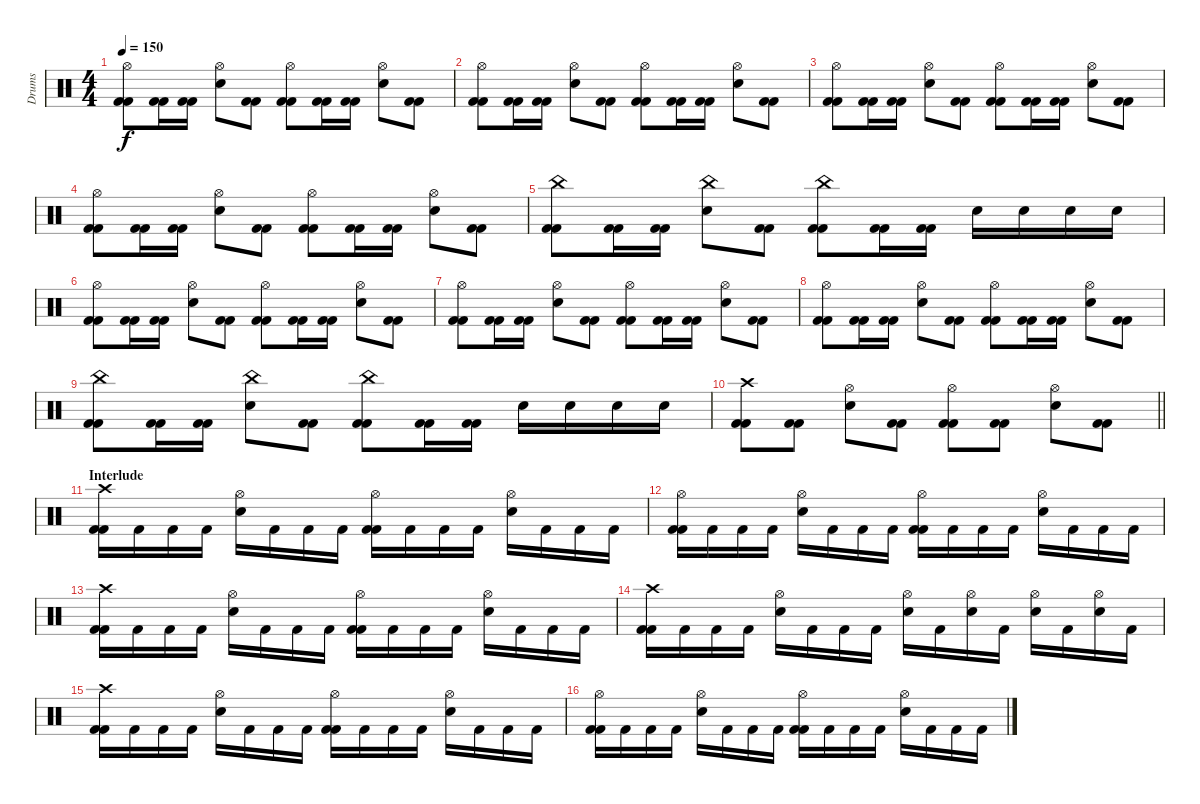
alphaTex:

\track ("Drums" "Drums") {instrument percussion}
\staff {score}
\articulation defaults
\ts (4 4)
\tempo 150
\clef neutral
\ks c
("Hi-Hat (open)" "Kick (hit) 2" "Kick (hit) 2").8{dy f} ("Kick (hit) 2" "Kick (hit) 2").16 ("Kick (hit) 2" "Kick (hit) 2").16 ("Electric Snare (hit)" "Hi-Hat (open)").8 ("Kick (hit) 2" "Kick (hit) 2").8 ("Hi-Hat (open)" "Kick (hit) 2" "Kick (hit) 2").8 ("Kick (hit) 2" "Kick (hit) 2").16 ("Kick (hit) 2" "Kick (hit) 2").16 ("Electric Snare (hit)" "Hi-Hat (open)").8 ("Kick (hit) 2" "Kick (hit) 2").8 |
("Hi-Hat (open)" "Kick (hit) 2" "Kick (hit) 2").8 ("Kick (hit) 2" "Kick (hit) 2").16 ("Kick (hit) 2" "Kick (hit) 2").16 ("Electric Snare (hit)" "Hi-Hat (open)").8 ("Kick (hit) 2" "Kick (hit) 2").8 ("Hi-Hat (open)" "Kick (hit) 2" "Kick (hit) 2").8 ("Kick (hit) 2" "Kick (hit) 2").16 ("Kick (hit) 2" "Kick (hit) 2").16 ("Electric Snare (hit)" "Hi-Hat (open)").8 ("Kick (hit) 2" "Kick (hit) 2").8 |
("Hi-Hat (open)" "Kick (hit) 2" "Kick (hit) 2").8 ("Kick (hit) 2" "Kick (hit) 2").16 ("Kick (hit) 2" "Kick (hit) 2").16 ("Electric Snare (hit)" "Hi-Hat (open)").8 ("Kick (hit) 2" "Kick (hit) 2").8 ("Hi-Hat (open)" "Kick (hit) 2" "Kick (hit) 2").8 ("Kick (hit) 2" "Kick (hit) 2").16 ("Kick (hit) 2" "Kick (hit) 2").16 ("Electric Snare (hit)" "Hi-Hat (open)").8 ("Kick (hit) 2" "Kick (hit) 2").8 |
("Hi-Hat (open)" "Kick (hit) 2" "Kick (hit) 2").8 ("Kick (hit) 2" "Kick (hit) 2").16 ("Kick (hit) 2" "Kick (hit) 2").16 ("Electric Snare (hit)" "Hi-Hat (open)").8 ("Kick (hit) 2" "Kick (hit) 2").8 ("Hi-Hat (open)" "Kick (hit) 2" "Kick (hit) 2").8 ("Kick (hit) 2" "Kick (hit) 2").16 ("Kick (hit) 2" "Kick (hit) 2").16 ("Electric Snare (hit)" "Hi-Hat (open)").8 ("Kick (hit) 2" "Kick (hit) 2").8 |
("China (hit)" "Kick (hit) 2" "Kick (hit) 2").8 ("Kick (hit) 2" "Kick (hit) 2").16 ("Kick (hit) 2" "Kick (hit) 2").16 ("Electric Snare (hit)" "China (hit)").8 ("Kick (hit) 2" "Kick (hit) 2").8 ("China (hit)" "Kick (hit) 2" "Kick (hit) 2").8 ("Kick (hit) 2" "Kick (hit) 2").16 ("Kick (hit) 2" "Kick (hit) 2").16 "Electric Snare (hit)".16 "Electric Snare (hit)".16 "Electric Snare (hit)".16 "Electric Snare (hit)".16 |
("Hi-Hat (open)" "Kick (hit) 2" "Kick (hit) 2").8 ("Kick (hit) 2" "Kick (hit) 2").16 ("Kick (hit) 2" "Kick (hit) 2").16 ("Electric Snare (hit)" "Hi-Hat (open)").8 ("Kick (hit) 2" "Kick (hit) 2").8 ("Hi-Hat (open)" "Kick (hit) 2" "Kick (hit) 2").8 ("Kick (hit) 2" "Kick (hit) 2").16 ("Kick (hit) 2" "Kick (hit) 2").16 ("Electric Snare (hit)" "Hi-Hat (open)").8 ("Kick (hit) 2" "Kick (hit) 2").8 |
("Hi-Hat (open)" "Kick (hit) 2" "Kick (hit) 2").8 ("Kick (hit) 2" "Kick (hit) 2").16 ("Kick (hit) 2" "Kick (hit) 2").16 ("Electric Snare (hit)" "Hi-Hat (open)").8 ("Kick (hit) 2" "Kick (hit) 2").8 ("Hi-Hat (open)" "Kick (hit) 2" "Kick (hit) 2").8 ("Kick (hit) 2" "Kick (hit) 2").16 ("Kick (hit) 2" "Kick (hit) 2").16 ("Electric Snare (hit)" "Hi-Hat (open)").8 ("Kick (hit) 2" "Kick (hit) 2").8 |
("Hi-Hat (open)" "Kick (hit) 2" "Kick (hit) 2").8 ("Kick (hit) 2" "Kick (hit) 2").16 ("Kick (hit) 2" "Kick (hit) 2").16 ("Electric Snare (hit)" "Hi-Hat (open)").8 ("Kick (hit) 2" "Kick (hit) 2").8 ("Hi-Hat (open)" "Kick (hit) 2" "Kick (hit) 2").8 ("Kick (hit) 2" "Kick (hit) 2").16 ("Kick (hit) 2" "Kick (hit) 2").16 ("Electric Snare (hit)" "Hi-Hat (open)").8 ("Kick (hit) 2" "Kick (hit) 2").8 |
("China (hit)" "Kick (hit) 2" "Kick (hit) 2").8 ("Kick (hit) 2" "Kick (hit) 2").16 ("Kick (hit) 2" "Kick (hit) 2").16 ("Electric Snare (hit)" "China (hit)").8 ("Kick (hit) 2" "Kick (hit) 2").8 ("China (hit)" "Kick (hit) 2" "Kick (hit) 2").8 ("Kick (hit) 2" "Kick (hit) 2").16 ("Kick (hit) 2" "Kick (hit) 2").16 "Electric Snare (hit)".16 "Electric Snare (hit)".16 "Electric Snare (hit)".16 "Electric Snare (hit)".16 |
\barLineRight lightlight
("Crash high (hit)" "Kick (hit) 2" "Kick (hit) 2").8 ("Kick (hit) 2" "Kick (hit) 2").8 ("Hi-Hat (open)" "Electric Snare (hit)").8 ("Kick (hit) 2" "Kick (hit) 2").8 ("Kick (hit) 2" "Kick (hit) 2" "Hi-Hat (open)").8 ("Kick (hit) 2" "Kick (hit) 2").8 ("Electric Snare (hit)" "Hi-Hat (open)").8 ("Kick (hit) 2" "Kick (hit) 2").8 |
\section ("" "Interlude")
("Crash high (hit)" "Kick (hit) 2" "Kick (hit) 2").16 "Kick (hit) 2".16 "Kick (hit) 2".16 "Kick (hit) 2".16 ("Electric Snare (hit)" "Hi-Hat (open)").16 "Kick (hit) 2".16 "Kick (hit) 2".16 "Kick (hit) 2".16 ("Hi-Hat (open)" "Kick (hit) 2" "Kick (hit) 2").16 "Kick (hit) 2".16 "Kick (hit) 2".16 "Kick (hit) 2".16 ("Electric Snare (hit)" "Hi-Hat (open)").16 "Kick (hit) 2".16 "Kick (hit) 2".16 "Kick (hit) 2".16 |
("Hi-Hat (open)" "Kick (hit) 2" "Kick (hit) 2").16 "Kick (hit) 2".16 "Kick (hit) 2".16 "Kick (hit) 2".16 ("Electric Snare (hit)" "Hi-Hat (open)").16 "Kick (hit) 2".16 "Kick (hit) 2".16 "Kick (hit) 2".16 ("Hi-Hat (open)" "Kick (hit) 2" "Kick (hit) 2").16 "Kick (hit) 2".16 "Kick (hit) 2".16 "Kick (hit) 2".16 ("Electric Snare (hit)" "Hi-Hat (open)").16 "Kick (hit) 2".16 "Kick (hit) 2".16 "Kick (hit) 2".16 |
("Crash high (hit)" "Kick (hit) 2" "Kick (hit) 2").16 "Kick (hit) 2".16 "Kick (hit) 2".16 "Kick (hit) 2".16 ("Electric Snare (hit)" "Hi-Hat (open)").16 "Kick (hit) 2".16 "Kick (hit) 2".16 "Kick (hit) 2".16 ("Hi-Hat (open)" "Kick (hit) 2" "Kick (hit) 2").16 "Kick (hit) 2".16 "Kick (hit) 2".16 "Kick (hit) 2".16 ("Electric Snare (hit)" "Hi-Hat (open)").16 "Kick (hit) 2".16 "Kick (hit) 2".16 "Kick (hit) 2".16 |
("Crash high (hit)" "Kick (hit) 2" "Kick (hit) 2").16 "Kick (hit) 2".16 "Kick (hit) 2".16 "Kick (hit) 2".16 ("Electric Snare (hit)" "Hi-Hat (open)").16 "Kick (hit) 2".16 "Kick (hit) 2".16 "Kick (hit) 2".16 ("Hi-Hat (open)" "Electric Snare (hit)").16 "Kick (hit) 2".16 ("Electric Snare (hit)" "Hi-Hat (open)").16 "Kick (hit) 2".16 ("Electric Snare (hit)" "Hi-Hat (open)").16 "Kick (hit) 2".16 ("Hi-Hat (open)" "Electric Snare (hit)").16 "Kick (hit) 2".16 |
("Crash high (hit)" "Kick (hit) 2" "Kick (hit) 2").16 "Kick (hit) 2".16 "Kick (hit) 2".16 "Kick (hit) 2".16 ("Electric Snare (hit)" "Hi-Hat (open)").16 "Kick (hit) 2".16 "Kick (hit) 2".16 "Kick (hit) 2".16 ("Hi-Hat (open)" "Kick (hit) 2" "Kick (hit) 2").16 "Kick (hit) 2".16 "Kick (hit) 2".16 "Kick (hit) 2".16 ("Electric Snare (hit)" "Hi-Hat (open)").16 "Kick (hit) 2".16 "Kick (hit) 2".16 "Kick (hit) 2".16 |
("Hi-Hat (open)" "Kick (hit) 2" "Kick (hit) 2").16 "Kick (hit) 2".16 "Kick (hit) 2".16 "Kick (hit) 2".16 ("Electric Snare (hit)" "Hi-Hat (open)").16 "Kick (hit) 2".16 "Kick (hit) 2".16 "Kick (hit) 2".16 ("Hi-Hat (open)" "Kick (hit) 2" "Kick (hit) 2").16 "Kick (hit) 2".16 "Kick (hit) 2".16 "Kick (hit) 2".16 ("Electric Snare (hit)" "Hi-Hat (open)").16 "Kick (hit) 2".16 "Kick (hit) 2".16 "Kick (hit) 2".16
